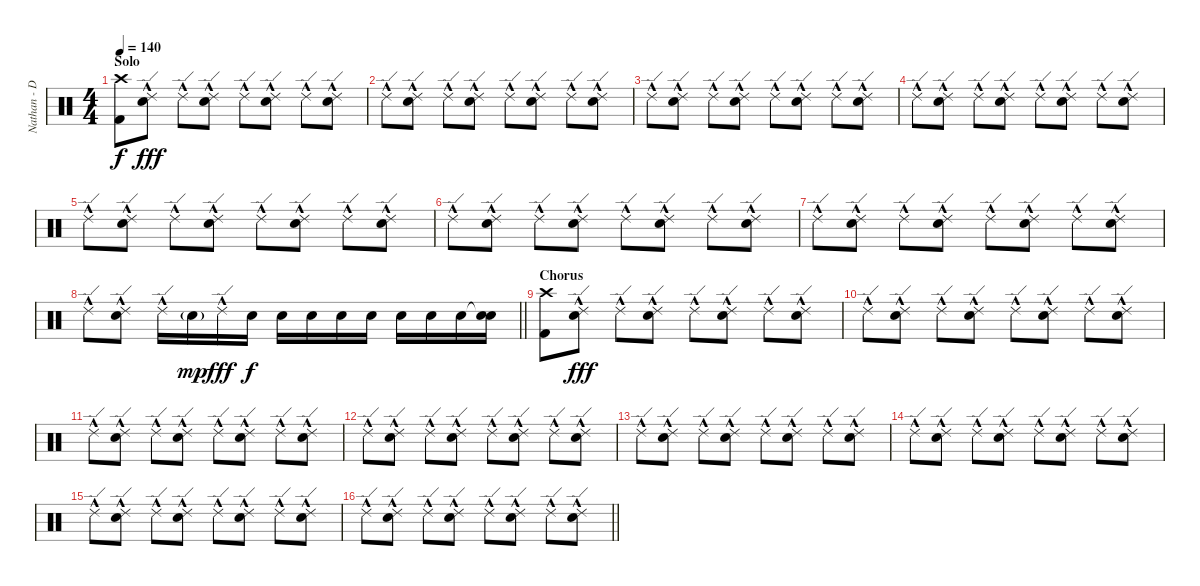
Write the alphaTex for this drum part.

\track ("Nathan - Drums MIDI" "Nathan - D") {instrument percussion}
\staff {score}
\articulation defaults
\ts (4 4)
\section ("" "Solo")
\tempo 140
\clef neutral
\ks c
("Crash high (hit)" "Kick (hit) 2").8{dy f} ("Ride (edge) 2"{hac} "Snare (hit) 2").8{dy fff} "Ride (edge) 2"{hac}.8 ("Ride (edge) 2"{hac} "Snare (hit) 2").8 "Ride (edge) 2"{hac}.8 ("Ride (edge) 2"{hac} "Snare (hit) 2").8 "Ride (edge) 2"{hac}.8 ("Ride (edge) 2"{hac} "Snare (hit) 2").8 |
"Ride (edge) 2"{hac}.8 ("Ride (edge) 2"{hac} "Snare (hit) 2").8 "Ride (edge) 2"{hac}.8 ("Ride (edge) 2"{hac} "Snare (hit) 2").8 "Ride (edge) 2"{hac}.8 ("Ride (edge) 2"{hac} "Snare (hit) 2").8 "Ride (edge) 2"{hac}.8 ("Ride (edge) 2"{hac} "Snare (hit) 2").8 |
"Ride (edge) 2"{hac}.8 ("Ride (edge) 2"{hac} "Snare (hit) 2").8 "Ride (edge) 2"{hac}.8 ("Ride (edge) 2"{hac} "Snare (hit) 2").8 "Ride (edge) 2"{hac}.8 ("Ride (edge) 2"{hac} "Snare (hit) 2").8 "Ride (edge) 2"{hac}.8 ("Ride (edge) 2"{hac} "Snare (hit) 2").8 |
"Ride (edge) 2"{hac}.8 ("Ride (edge) 2"{hac} "Snare (hit) 2").8 "Ride (edge) 2"{hac}.8 ("Ride (edge) 2"{hac} "Snare (hit) 2").8 "Ride (edge) 2"{hac}.8 ("Ride (edge) 2"{hac} "Snare (hit) 2").8 "Ride (edge) 2"{hac}.8 ("Ride (edge) 2"{hac} "Snare (hit) 2").8 |
"Ride (edge) 2"{hac}.8 ("Ride (edge) 2"{hac} "Snare (hit) 2").8 "Ride (edge) 2"{hac}.8 ("Ride (edge) 2"{hac} "Snare (hit) 2").8 "Ride (edge) 2"{hac}.8 ("Ride (edge) 2"{hac} "Snare (hit) 2").8 "Ride (edge) 2"{hac}.8 ("Ride (edge) 2"{hac} "Snare (hit) 2").8 |
"Ride (edge) 2"{hac}.8 ("Ride (edge) 2"{hac} "Snare (hit) 2").8 "Ride (edge) 2"{hac}.8 ("Ride (edge) 2"{hac} "Snare (hit) 2").8 "Ride (edge) 2"{hac}.8 ("Ride (edge) 2"{hac} "Snare (hit) 2").8 "Ride (edge) 2"{hac}.8 ("Ride (edge) 2"{hac} "Snare (hit) 2").8 |
"Ride (edge) 2"{hac}.8 ("Ride (edge) 2"{hac} "Snare (hit) 2").8 "Ride (edge) 2"{hac}.8 ("Ride (edge) 2"{hac} "Snare (hit) 2").8 "Ride (edge) 2"{hac}.8 ("Ride (edge) 2"{hac} "Snare (hit) 2").8 "Ride (edge) 2"{hac}.8 ("Ride (edge) 2"{hac} "Snare (hit) 2").8 |
\barLineRight lightlight "Ride (edge) 2"{hac}.8
("Ride (edge) 2"{hac} "Snare (hit) 2").8 "Ride (edge) 2"{hac}.16 "Snare (hit) 2"{g}.16{dy mp} "Ride (edge) 2"{hac}.16{dy fff} "Snare (hit) 2".16{dy f} "Snare (hit) 2".16 "Snare (hit) 2".16 "Snare (hit) 2".16 "Snare (hit) 2".16 "Snare (hit) 2".16 "Snare (hit) 2".16 "Snare (hit) 2".16 ("Snare (hit)"{t} "Snare (hit) 2").16 |
\section ("" "Chorus")
("Crash high (hit)" "Kick (hit) 2").8 ("Ride (edge) 2"{hac} "Snare (hit) 2").8{dy fff} "Ride (edge) 2"{hac}.8 ("Ride (edge) 2"{hac} "Snare (hit) 2").8 "Ride (edge) 2"{hac}.8 ("Ride (edge) 2"{hac} "Snare (hit) 2").8 "Ride (edge) 2"{hac}.8 ("Ride (edge) 2"{hac} "Snare (hit) 2").8 |
"Ride (edge) 2"{hac}.8 ("Ride (edge) 2"{hac} "Snare (hit) 2").8 "Ride (edge) 2"{hac}.8 ("Ride (edge) 2"{hac} "Snare (hit) 2").8 "Ride (edge) 2"{hac}.8 ("Ride (edge) 2"{hac} "Snare (hit) 2").8 "Ride (edge) 2"{hac}.8 ("Ride (edge) 2"{hac} "Snare (hit) 2").8 |
"Ride (edge) 2"{hac}.8 ("Ride (edge) 2"{hac} "Snare (hit) 2").8 "Ride (edge) 2"{hac}.8 ("Ride (edge) 2"{hac} "Snare (hit) 2").8 "Ride (edge) 2"{hac}.8 ("Ride (edge) 2"{hac} "Snare (hit) 2").8 "Ride (edge) 2"{hac}.8 ("Ride (edge) 2"{hac} "Snare (hit) 2").8 |
"Ride (edge) 2"{hac}.8 ("Ride (edge) 2"{hac} "Snare (hit) 2").8 "Ride (edge) 2"{hac}.8 ("Ride (edge) 2"{hac} "Snare (hit) 2").8 "Ride (edge) 2"{hac}.8 ("Ride (edge) 2"{hac} "Snare (hit) 2").8 "Ride (edge) 2"{hac}.8 ("Ride (edge) 2"{hac} "Snare (hit) 2").8 |
"Ride (edge) 2"{hac}.8 ("Ride (edge) 2"{hac} "Snare (hit) 2").8 "Ride (edge) 2"{hac}.8 ("Ride (edge) 2"{hac} "Snare (hit) 2").8 "Ride (edge) 2"{hac}.8 ("Ride (edge) 2"{hac} "Snare (hit) 2").8 "Ride (edge) 2"{hac}.8 ("Ride (edge) 2"{hac} "Snare (hit) 2").8 |
"Ride (edge) 2"{hac}.8 ("Ride (edge) 2"{hac} "Snare (hit) 2").8 "Ride (edge) 2"{hac}.8 ("Ride (edge) 2"{hac} "Snare (hit) 2").8 "Ride (edge) 2"{hac}.8 ("Ride (edge) 2"{hac} "Snare (hit) 2").8 "Ride (edge) 2"{hac}.8 ("Ride (edge) 2"{hac} "Snare (hit) 2").8 |
"Ride (edge) 2"{hac}.8 ("Ride (edge) 2"{hac} "Snare (hit) 2").8 "Ride (edge) 2"{hac}.8 ("Ride (edge) 2"{hac} "Snare (hit) 2").8 "Ride (edge) 2"{hac}.8 ("Ride (edge) 2"{hac} "Snare (hit) 2").8 "Ride (edge) 2"{hac}.8 ("Ride (edge) 2"{hac} "Snare (hit) 2").8 |
\barLineRight lightlight "Ride (edge) 2"{hac}.8
("Ride (edge) 2"{hac} "Snare (hit) 2").8 "Ride (edge) 2"{hac}.8 ("Ride (edge) 2"{hac} "Snare (hit) 2").8 "Ride (edge) 2"{hac}.8 ("Ride (edge) 2"{hac} "Snare (hit) 2").8 "Ride (edge) 2"{hac}.8 ("Ride (edge) 2"{hac} "Snare (hit) 2").8
